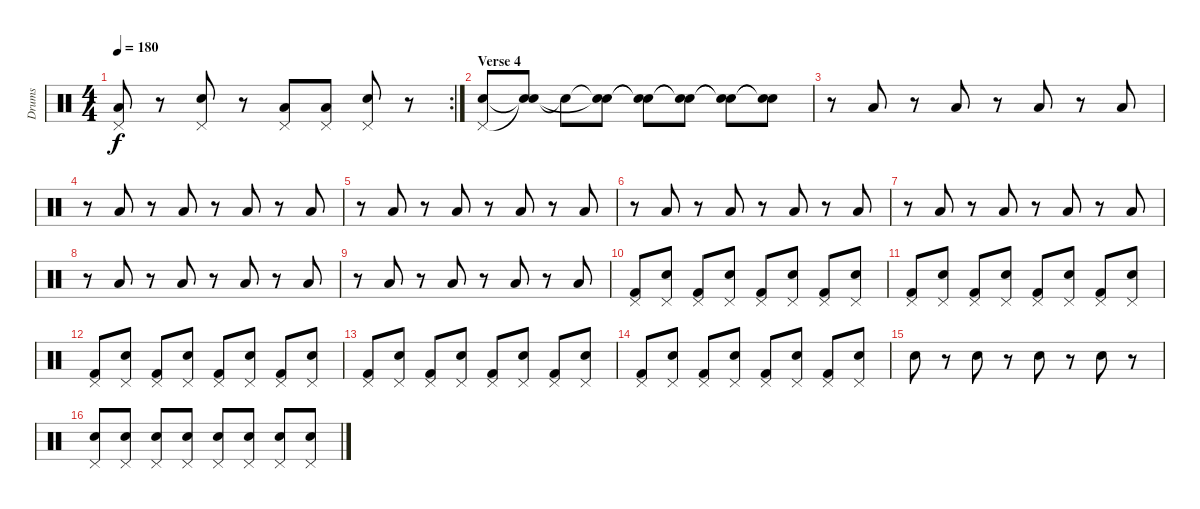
\track ("Drums" "Drums") {instrument percussion}
\staff {score}
\articulation defaults
\rc 2
\ts (4 4)
\tempo 180
\clef neutral
\ks c
("Low Tom (hit)" "Pedal Hi-Hat (hit)").8{dy f} r.8 ("Electric Snare (hit)" "Pedal Hi-Hat (hit)").8 r.8 ("Low Tom (hit)" "Pedal Hi-Hat (hit)").8 ("Low Tom (hit)" "Pedal Hi-Hat (hit)").8 ("Electric Snare (hit)" "Pedal Hi-Hat (hit)").8 r.8 |
\section ("" "Verse 4")
("Electric Snare (hit)" "Pedal Hi-Hat (hit)").8 ("Snare (hit)"{t} "Snare (hit)"{t}).8 "Snare (hit)"{t}.8 ("Snare (hit)"{t} "Snare (hit)"{t}).8 ("Snare (hit)"{t} "Snare (hit)"{t}).8 ("Snare (hit)"{t} "Snare (hit)"{t}).8 ("Snare (hit)"{t} "Snare (hit)"{t}).8 ("Snare (hit)"{t} "Snare (hit)"{t}).8 |
r.8 "Low Tom (hit)".8 r.8 "Low Tom (hit)".8 r.8 "Low Tom (hit)".8 r.8 "Low Tom (hit)".8 |
r.8 "Low Tom (hit)".8 r.8 "Low Tom (hit)".8 r.8 "Low Tom (hit)".8 r.8 "Low Tom (hit)".8 |
r.8 "Low Tom (hit)".8 r.8 "Low Tom (hit)".8 r.8 "Low Tom (hit)".8 r.8 "Low Tom (hit)".8 |
r.8 "Low Tom (hit)".8 r.8 "Low Tom (hit)".8 r.8 "Low Tom (hit)".8 r.8 "Low Tom (hit)".8 |
r.8 "Low Tom (hit)".8 r.8 "Low Tom (hit)".8 r.8 "Low Tom (hit)".8 r.8 "Low Tom (hit)".8 |
r.8 "Low Tom (hit)".8 r.8 "Low Tom (hit)".8 r.8 "Low Tom (hit)".8 r.8 "Low Tom (hit)".8 |
r.8 "Low Tom (hit)".8 r.8 "Low Tom (hit)".8 r.8 "Low Tom (hit)".8 r.8 "Low Tom (hit)".8 |
("Kick (hit) 2" "Pedal Hi-Hat (hit)").8 ("Electric Snare (hit)" "Pedal Hi-Hat (hit)").8 ("Kick (hit) 2" "Pedal Hi-Hat (hit)").8 ("Electric Snare (hit)" "Pedal Hi-Hat (hit)").8 ("Kick (hit) 2" "Pedal Hi-Hat (hit)").8 ("Electric Snare (hit)" "Pedal Hi-Hat (hit)").8 ("Kick (hit) 2" "Pedal Hi-Hat (hit)").8 ("Electric Snare (hit)" "Pedal Hi-Hat (hit)").8 |
("Kick (hit) 2" "Pedal Hi-Hat (hit)").8 ("Electric Snare (hit)" "Pedal Hi-Hat (hit)").8 ("Kick (hit) 2" "Pedal Hi-Hat (hit)").8 ("Electric Snare (hit)" "Pedal Hi-Hat (hit)").8 ("Kick (hit) 2" "Pedal Hi-Hat (hit)").8 ("Electric Snare (hit)" "Pedal Hi-Hat (hit)").8 ("Kick (hit) 2" "Pedal Hi-Hat (hit)").8 ("Electric Snare (hit)" "Pedal Hi-Hat (hit)").8 |
("Kick (hit) 2" "Pedal Hi-Hat (hit)").8 ("Electric Snare (hit)" "Pedal Hi-Hat (hit)").8 ("Kick (hit) 2" "Pedal Hi-Hat (hit)").8 ("Electric Snare (hit)" "Pedal Hi-Hat (hit)").8 ("Kick (hit) 2" "Pedal Hi-Hat (hit)").8 ("Electric Snare (hit)" "Pedal Hi-Hat (hit)").8 ("Kick (hit) 2" "Pedal Hi-Hat (hit)").8 ("Electric Snare (hit)" "Pedal Hi-Hat (hit)").8 |
("Kick (hit) 2" "Pedal Hi-Hat (hit)").8 ("Electric Snare (hit)" "Pedal Hi-Hat (hit)").8 ("Kick (hit) 2" "Pedal Hi-Hat (hit)").8 ("Electric Snare (hit)" "Pedal Hi-Hat (hit)").8 ("Kick (hit) 2" "Pedal Hi-Hat (hit)").8 ("Electric Snare (hit)" "Pedal Hi-Hat (hit)").8 ("Kick (hit) 2" "Pedal Hi-Hat (hit)").8 ("Electric Snare (hit)" "Pedal Hi-Hat (hit)").8 |
("Kick (hit) 2" "Pedal Hi-Hat (hit)").8 ("Electric Snare (hit)" "Pedal Hi-Hat (hit)").8 ("Kick (hit) 2" "Pedal Hi-Hat (hit)").8 ("Electric Snare (hit)" "Pedal Hi-Hat (hit)").8 ("Kick (hit) 2" "Pedal Hi-Hat (hit)").8 ("Electric Snare (hit)" "Pedal Hi-Hat (hit)").8 ("Kick (hit) 2" "Pedal Hi-Hat (hit)").8 ("Electric Snare (hit)" "Pedal Hi-Hat (hit)").8 |
"Electric Snare (hit)".8 r.8 "Electric Snare (hit)".8 r.8 "Electric Snare (hit)".8 r.8 "Electric Snare (hit)".8 r.8 |
("Electric Snare (hit)" "Pedal Hi-Hat (hit)").8 ("Electric Snare (hit)" "Pedal Hi-Hat (hit)").8 ("Electric Snare (hit)" "Pedal Hi-Hat (hit)").8 ("Electric Snare (hit)" "Pedal Hi-Hat (hit)").8 ("Electric Snare (hit)" "Pedal Hi-Hat (hit)").8 ("Electric Snare (hit)" "Pedal Hi-Hat (hit)").8 ("Electric Snare (hit)" "Pedal Hi-Hat (hit)").8 ("Electric Snare (hit)" "Pedal Hi-Hat (hit)").8
